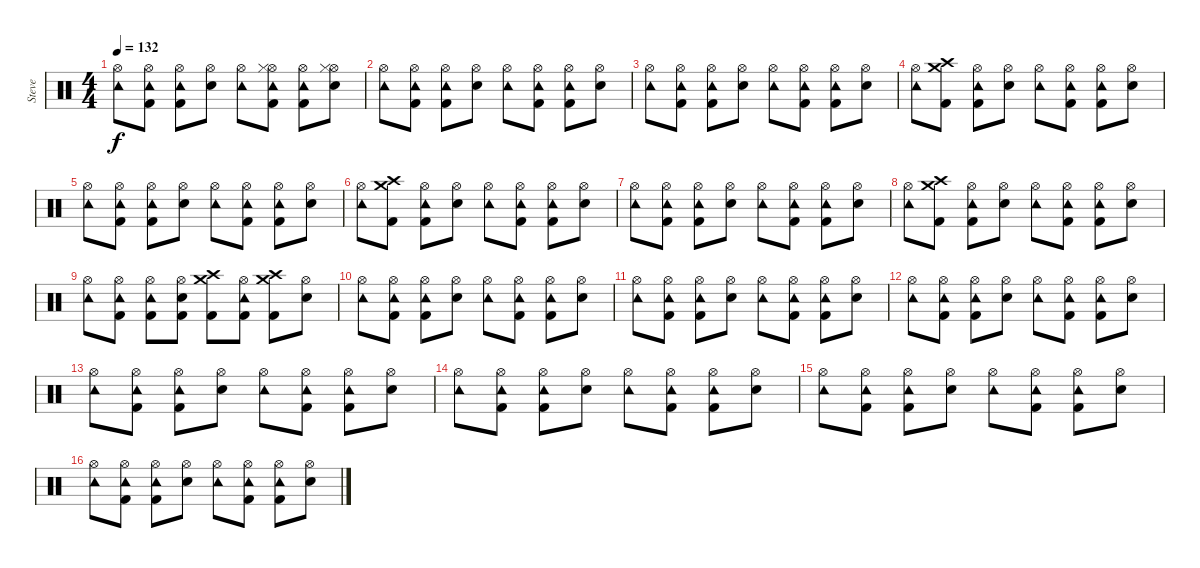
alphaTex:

\track ("Steve" "Steve") {instrument percussion}
\staff {score}
\articulation defaults
\ts (4 4)
\tempo 132
\clef neutral
\ks c
("Hi-Hat (open)" "Tambourine (hit)").8{dy f} ("Hi-Hat (open)" "Tambourine (hit)" "Kick (hit) 2").8 ("Hi-Hat (open)" "Tambourine (hit)" "Kick (hit) 2").8 ("Hi-Hat (open)" "Snare (hit) 2").8 ("Hi-Hat (open)" "Tambourine (hit)").8 ("Hi-Hat (open)" "Tambourine (hit)" "Kick (hit) 2" "Hi-Hat (closed)").8 ("Hi-Hat (open)" "Tambourine (hit)" "Kick (hit) 2").8 ("Hi-Hat (open)" "Snare (hit) 2" "Hi-Hat (closed)").8 |
("Hi-Hat (open)" "Tambourine (hit)").8 ("Hi-Hat (open)" "Tambourine (hit)" "Kick (hit) 2").8 ("Hi-Hat (open)" "Tambourine (hit)" "Kick (hit) 2").8 ("Hi-Hat (open)" "Snare (hit) 2").8 ("Hi-Hat (open)" "Tambourine (hit)").8 ("Hi-Hat (open)" "Tambourine (hit)" "Kick (hit) 2").8 ("Hi-Hat (open)" "Tambourine (hit)" "Kick (hit) 2").8 ("Hi-Hat (open)" "Snare (hit) 2").8 |
("Hi-Hat (open)" "Tambourine (hit)").8 ("Hi-Hat (open)" "Tambourine (hit)" "Kick (hit) 2").8 ("Hi-Hat (open)" "Tambourine (hit)" "Kick (hit) 2").8 ("Hi-Hat (open)" "Snare (hit) 2").8 ("Hi-Hat (open)" "Tambourine (hit)").8 ("Hi-Hat (open)" "Tambourine (hit)" "Kick (hit) 2").8 ("Hi-Hat (open)" "Tambourine (hit)" "Kick (hit) 2").8 ("Hi-Hat (open)" "Snare (hit) 2").8 |
("Hi-Hat (open)" "Tambourine (hit)").8 ("Crash high (hit)" "Crash medium (hit)" "Kick (hit) 2").8 ("Hi-Hat (open)" "Tambourine (hit)" "Kick (hit) 2").8 ("Hi-Hat (open)" "Snare (hit) 2").8 ("Hi-Hat (open)" "Tambourine (hit)").8 ("Hi-Hat (open)" "Tambourine (hit)" "Kick (hit) 2").8 ("Hi-Hat (open)" "Tambourine (hit)" "Kick (hit) 2").8 ("Hi-Hat (open)" "Snare (hit) 2").8 |
("Hi-Hat (open)" "Tambourine (hit)").8 ("Hi-Hat (open)" "Tambourine (hit)" "Kick (hit) 2").8 ("Hi-Hat (open)" "Tambourine (hit)" "Kick (hit) 2").8 ("Hi-Hat (open)" "Snare (hit) 2").8 ("Hi-Hat (open)" "Tambourine (hit)").8 ("Hi-Hat (open)" "Tambourine (hit)" "Kick (hit) 2").8 ("Hi-Hat (open)" "Tambourine (hit)" "Kick (hit) 2").8 ("Hi-Hat (open)" "Snare (hit) 2").8 |
("Hi-Hat (open)" "Tambourine (hit)").8 ("Crash high (hit)" "Crash medium (hit)" "Kick (hit) 2").8 ("Hi-Hat (open)" "Tambourine (hit)" "Kick (hit) 2").8 ("Hi-Hat (open)" "Snare (hit) 2").8 ("Hi-Hat (open)" "Tambourine (hit)").8 ("Hi-Hat (open)" "Tambourine (hit)" "Kick (hit) 2").8 ("Hi-Hat (open)" "Tambourine (hit)" "Kick (hit) 2").8 ("Hi-Hat (open)" "Snare (hit) 2").8 |
("Hi-Hat (open)" "Tambourine (hit)").8 ("Hi-Hat (open)" "Tambourine (hit)" "Kick (hit) 2").8 ("Hi-Hat (open)" "Tambourine (hit)" "Kick (hit) 2").8 ("Hi-Hat (open)" "Snare (hit) 2").8 ("Hi-Hat (open)" "Tambourine (hit)").8 ("Hi-Hat (open)" "Tambourine (hit)" "Kick (hit) 2").8 ("Hi-Hat (open)" "Tambourine (hit)" "Kick (hit) 2").8 ("Hi-Hat (open)" "Snare (hit) 2").8 |
("Hi-Hat (open)" "Tambourine (hit)").8 ("Crash high (hit)" "Crash medium (hit)" "Kick (hit) 2").8 ("Hi-Hat (open)" "Tambourine (hit)" "Kick (hit) 2").8 ("Hi-Hat (open)" "Snare (hit) 2").8 ("Hi-Hat (open)" "Tambourine (hit)").8 ("Hi-Hat (open)" "Tambourine (hit)" "Kick (hit) 2").8 ("Hi-Hat (open)" "Tambourine (hit)" "Kick (hit) 2").8 ("Hi-Hat (open)" "Snare (hit) 2").8 |
("Hi-Hat (open)" "Tambourine (hit)").8 ("Hi-Hat (open)" "Tambourine (hit)" "Kick (hit) 2").8 ("Hi-Hat (open)" "Tambourine (hit)" "Kick (hit) 2").8 ("Hi-Hat (open)" "Snare (hit) 2" "Kick (hit) 2").8 ("Crash high (hit)" "Crash medium (hit)" "Kick (hit) 2").8 ("Hi-Hat (open)" "Tambourine (hit)" "Kick (hit) 2").8 ("Crash high (hit)" "Crash medium (hit)" "Kick (hit) 2").8 ("Hi-Hat (open)" "Snare (hit) 2").8 |
("Hi-Hat (open)" "Tambourine (hit)").8 ("Hi-Hat (open)" "Tambourine (hit)" "Kick (hit) 2").8 ("Hi-Hat (open)" "Tambourine (hit)" "Kick (hit) 2").8 ("Hi-Hat (open)" "Snare (hit) 2").8 ("Hi-Hat (open)" "Tambourine (hit)").8 ("Hi-Hat (open)" "Tambourine (hit)" "Kick (hit) 2").8 ("Hi-Hat (open)" "Tambourine (hit)" "Kick (hit) 2").8 ("Hi-Hat (open)" "Snare (hit) 2").8 |
("Hi-Hat (open)" "Tambourine (hit)").8 ("Hi-Hat (open)" "Tambourine (hit)" "Kick (hit) 2").8 ("Hi-Hat (open)" "Tambourine (hit)" "Kick (hit) 2").8 ("Hi-Hat (open)" "Snare (hit) 2").8 ("Hi-Hat (open)" "Tambourine (hit)").8 ("Hi-Hat (open)" "Tambourine (hit)" "Kick (hit) 2").8 ("Hi-Hat (open)" "Tambourine (hit)" "Kick (hit) 2").8 ("Hi-Hat (open)" "Snare (hit) 2").8 |
("Hi-Hat (open)" "Tambourine (hit)").8 ("Hi-Hat (open)" "Tambourine (hit)" "Kick (hit) 2").8 ("Hi-Hat (open)" "Tambourine (hit)" "Kick (hit) 2").8 ("Hi-Hat (open)" "Snare (hit) 2").8 ("Hi-Hat (open)" "Tambourine (hit)").8 ("Hi-Hat (open)" "Tambourine (hit)" "Kick (hit) 2").8 ("Hi-Hat (open)" "Tambourine (hit)" "Kick (hit) 2").8 ("Hi-Hat (open)" "Snare (hit) 2").8 |
("Hi-Hat (open)" "Tambourine (hit)").8 ("Hi-Hat (open)" "Tambourine (hit)" "Kick (hit) 2").8 ("Hi-Hat (open)" "Tambourine (hit)" "Kick (hit) 2").8 ("Hi-Hat (open)" "Snare (hit) 2").8 ("Hi-Hat (open)" "Tambourine (hit)").8 ("Hi-Hat (open)" "Tambourine (hit)" "Kick (hit) 2").8 ("Hi-Hat (open)" "Tambourine (hit)" "Kick (hit) 2").8 ("Hi-Hat (open)" "Snare (hit) 2").8 |
("Hi-Hat (open)" "Tambourine (hit)").8 ("Hi-Hat (open)" "Tambourine (hit)" "Kick (hit) 2").8 ("Hi-Hat (open)" "Tambourine (hit)" "Kick (hit) 2").8 ("Hi-Hat (open)" "Snare (hit) 2").8 ("Hi-Hat (open)" "Tambourine (hit)").8 ("Hi-Hat (open)" "Tambourine (hit)" "Kick (hit) 2").8 ("Hi-Hat (open)" "Tambourine (hit)" "Kick (hit) 2").8 ("Hi-Hat (open)" "Snare (hit) 2").8 |
("Hi-Hat (open)" "Tambourine (hit)").8 ("Hi-Hat (open)" "Tambourine (hit)" "Kick (hit) 2").8 ("Hi-Hat (open)" "Tambourine (hit)" "Kick (hit) 2").8 ("Hi-Hat (open)" "Snare (hit) 2").8 ("Hi-Hat (open)" "Tambourine (hit)").8 ("Hi-Hat (open)" "Tambourine (hit)" "Kick (hit) 2").8 ("Hi-Hat (open)" "Tambourine (hit)" "Kick (hit) 2").8 ("Hi-Hat (open)" "Snare (hit) 2").8 |
("Hi-Hat (open)" "Tambourine (hit)").8 ("Hi-Hat (open)" "Tambourine (hit)" "Kick (hit) 2").8 ("Hi-Hat (open)" "Tambourine (hit)" "Kick (hit) 2").8 ("Hi-Hat (open)" "Snare (hit) 2").8 ("Hi-Hat (open)" "Tambourine (hit)").8 ("Hi-Hat (open)" "Tambourine (hit)" "Kick (hit) 2").8 ("Hi-Hat (open)" "Tambourine (hit)" "Kick (hit) 2").8 ("Hi-Hat (open)" "Snare (hit) 2").8
